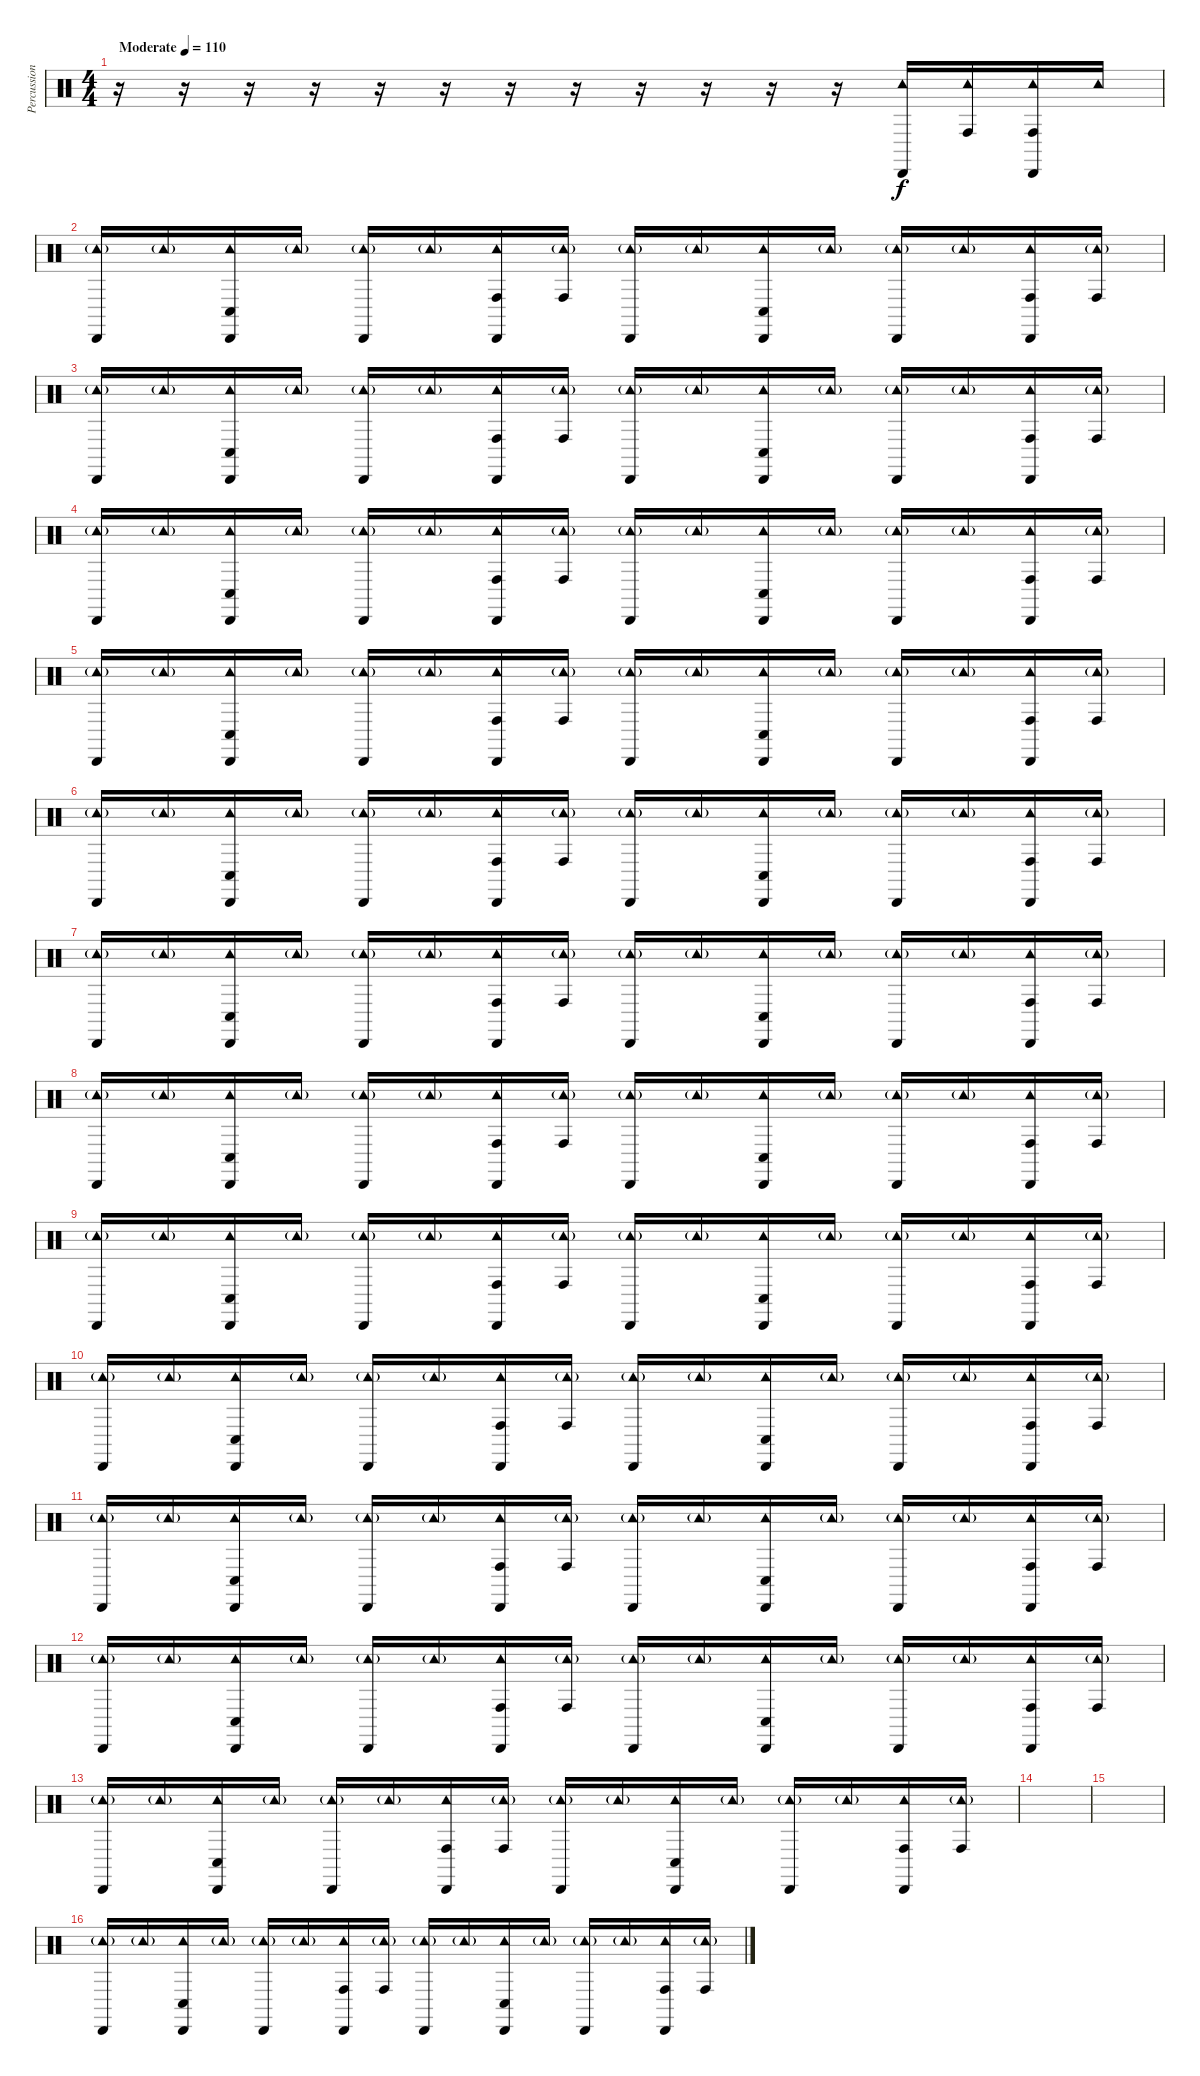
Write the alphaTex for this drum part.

\track ("Percussion" "Percussion") {instrument percussion}
\staff {score}
\articulation defaults
\ts (4 4)
\tempo (110 "Moderate")
\clef neutral
\ks c
r.16{dy f} r.16 r.16 r.16 r.16 r.16 r.16 r.16 r.16 r.16 r.16 r.16 ("Tambourine (hit)" "Cabasa (hit)").16 ("Tambourine (hit)" "Conga high (hit)").16 ("Tambourine (hit)" "Cabasa (hit)" "Conga high (hit)").16 "Tambourine (hit)".16 |
("Tambourine (hit)"{g} "Cabasa (hit)").16 "Tambourine (hit)"{g}.16 ("Tambourine (hit)" "Cabasa (hit)" "Conga low (hit)").16 "Tambourine (hit)"{g}.16 ("Tambourine (hit)"{g} "Cabasa (hit)").16 "Tambourine (hit)"{g}.16 ("Tambourine (hit)" "Cabasa (hit)" "Conga high (hit)").16 ("Tambourine (hit)"{g} "Conga high (hit)").16 ("Tambourine (hit)"{g} "Cabasa (hit)").16 "Tambourine (hit)"{g}.16 ("Tambourine (hit)" "Cabasa (hit)" "Conga low (hit)").16 "Tambourine (hit)"{g}.16 ("Tambourine (hit)"{g} "Cabasa (hit)").16 "Tambourine (hit)"{g}.16 ("Tambourine (hit)" "Cabasa (hit)" "Conga high (hit)").16 ("Tambourine (hit)"{g} "Conga high (hit)").16 |
("Tambourine (hit)"{g} "Cabasa (hit)").16 "Tambourine (hit)"{g}.16 ("Tambourine (hit)" "Cabasa (hit)" "Conga low (hit)").16 "Tambourine (hit)"{g}.16 ("Tambourine (hit)"{g} "Cabasa (hit)").16 "Tambourine (hit)"{g}.16 ("Tambourine (hit)" "Cabasa (hit)" "Conga high (hit)").16 ("Tambourine (hit)"{g} "Conga high (hit)").16 ("Tambourine (hit)"{g} "Cabasa (hit)").16 "Tambourine (hit)"{g}.16 ("Tambourine (hit)" "Cabasa (hit)" "Conga low (hit)").16 "Tambourine (hit)"{g}.16 ("Tambourine (hit)"{g} "Cabasa (hit)").16 "Tambourine (hit)"{g}.16 ("Tambourine (hit)" "Cabasa (hit)" "Conga high (hit)").16 ("Tambourine (hit)"{g} "Conga high (hit)").16 |
("Tambourine (hit)"{g} "Cabasa (hit)").16 "Tambourine (hit)"{g}.16 ("Tambourine (hit)" "Cabasa (hit)" "Conga low (hit)").16 "Tambourine (hit)"{g}.16 ("Tambourine (hit)"{g} "Cabasa (hit)").16 "Tambourine (hit)"{g}.16 ("Tambourine (hit)" "Cabasa (hit)" "Conga high (hit)").16 ("Tambourine (hit)"{g} "Conga high (hit)").16 ("Tambourine (hit)"{g} "Cabasa (hit)").16 "Tambourine (hit)"{g}.16 ("Tambourine (hit)" "Cabasa (hit)" "Conga low (hit)").16 "Tambourine (hit)"{g}.16 ("Tambourine (hit)"{g} "Cabasa (hit)").16 "Tambourine (hit)"{g}.16 ("Tambourine (hit)" "Cabasa (hit)" "Conga high (hit)").16 ("Tambourine (hit)"{g} "Conga high (hit)").16 |
("Tambourine (hit)"{g} "Cabasa (hit)").16 "Tambourine (hit)"{g}.16 ("Tambourine (hit)" "Cabasa (hit)" "Conga low (hit)").16 "Tambourine (hit)"{g}.16 ("Tambourine (hit)"{g} "Cabasa (hit)").16 "Tambourine (hit)"{g}.16 ("Tambourine (hit)" "Cabasa (hit)" "Conga high (hit)").16 ("Tambourine (hit)"{g} "Conga high (hit)").16 ("Tambourine (hit)"{g} "Cabasa (hit)").16 "Tambourine (hit)"{g}.16 ("Tambourine (hit)" "Cabasa (hit)" "Conga low (hit)").16 "Tambourine (hit)"{g}.16 ("Tambourine (hit)"{g} "Cabasa (hit)").16 "Tambourine (hit)"{g}.16 ("Tambourine (hit)" "Cabasa (hit)" "Conga high (hit)").16 ("Tambourine (hit)"{g} "Conga high (hit)").16 |
("Tambourine (hit)"{g} "Cabasa (hit)").16 "Tambourine (hit)"{g}.16 ("Tambourine (hit)" "Cabasa (hit)" "Conga low (hit)").16 "Tambourine (hit)"{g}.16 ("Tambourine (hit)"{g} "Cabasa (hit)").16 "Tambourine (hit)"{g}.16 ("Tambourine (hit)" "Cabasa (hit)" "Conga high (hit)").16 ("Tambourine (hit)"{g} "Conga high (hit)").16 ("Tambourine (hit)"{g} "Cabasa (hit)").16 "Tambourine (hit)"{g}.16 ("Tambourine (hit)" "Cabasa (hit)" "Conga low (hit)").16 "Tambourine (hit)"{g}.16 ("Tambourine (hit)"{g} "Cabasa (hit)").16 "Tambourine (hit)"{g}.16 ("Tambourine (hit)" "Cabasa (hit)" "Conga high (hit)").16 ("Tambourine (hit)"{g} "Conga high (hit)").16 |
("Tambourine (hit)"{g} "Cabasa (hit)").16 "Tambourine (hit)"{g}.16 ("Tambourine (hit)" "Cabasa (hit)" "Conga low (hit)").16 "Tambourine (hit)"{g}.16 ("Tambourine (hit)"{g} "Cabasa (hit)").16 "Tambourine (hit)"{g}.16 ("Tambourine (hit)" "Cabasa (hit)" "Conga high (hit)").16 ("Tambourine (hit)"{g} "Conga high (hit)").16 ("Tambourine (hit)"{g} "Cabasa (hit)").16 "Tambourine (hit)"{g}.16 ("Tambourine (hit)" "Cabasa (hit)" "Conga low (hit)").16 "Tambourine (hit)"{g}.16 ("Tambourine (hit)"{g} "Cabasa (hit)").16 "Tambourine (hit)"{g}.16 ("Tambourine (hit)" "Cabasa (hit)" "Conga high (hit)").16 ("Tambourine (hit)"{g} "Conga high (hit)").16 |
("Tambourine (hit)"{g} "Cabasa (hit)").16 "Tambourine (hit)"{g}.16 ("Tambourine (hit)" "Cabasa (hit)" "Conga low (hit)").16 "Tambourine (hit)"{g}.16 ("Tambourine (hit)"{g} "Cabasa (hit)").16 "Tambourine (hit)"{g}.16 ("Tambourine (hit)" "Cabasa (hit)" "Conga high (hit)").16 ("Tambourine (hit)"{g} "Conga high (hit)").16 ("Tambourine (hit)"{g} "Cabasa (hit)").16 "Tambourine (hit)"{g}.16 ("Tambourine (hit)" "Cabasa (hit)" "Conga low (hit)").16 "Tambourine (hit)"{g}.16 ("Tambourine (hit)"{g} "Cabasa (hit)").16 "Tambourine (hit)"{g}.16 ("Tambourine (hit)" "Cabasa (hit)" "Conga high (hit)").16 ("Tambourine (hit)"{g} "Conga high (hit)").16 |
("Tambourine (hit)"{g} "Cabasa (hit)").16 "Tambourine (hit)"{g}.16 ("Tambourine (hit)" "Cabasa (hit)" "Conga low (hit)").16 "Tambourine (hit)"{g}.16 ("Tambourine (hit)"{g} "Cabasa (hit)").16 "Tambourine (hit)"{g}.16 ("Tambourine (hit)" "Cabasa (hit)" "Conga high (hit)").16 ("Tambourine (hit)"{g} "Conga high (hit)").16 ("Tambourine (hit)"{g} "Cabasa (hit)").16 "Tambourine (hit)"{g}.16 ("Tambourine (hit)" "Cabasa (hit)" "Conga low (hit)").16 "Tambourine (hit)"{g}.16 ("Tambourine (hit)"{g} "Cabasa (hit)").16 "Tambourine (hit)"{g}.16 ("Tambourine (hit)" "Cabasa (hit)" "Conga high (hit)").16 ("Tambourine (hit)"{g} "Conga high (hit)").16 |
("Tambourine (hit)"{g} "Cabasa (hit)").16 "Tambourine (hit)"{g}.16 ("Tambourine (hit)" "Cabasa (hit)" "Conga low (hit)").16 "Tambourine (hit)"{g}.16 ("Tambourine (hit)"{g} "Cabasa (hit)").16 "Tambourine (hit)"{g}.16 ("Tambourine (hit)" "Cabasa (hit)" "Conga high (hit)").16 ("Tambourine (hit)"{g} "Conga high (hit)").16 ("Tambourine (hit)"{g} "Cabasa (hit)").16 "Tambourine (hit)"{g}.16 ("Tambourine (hit)" "Cabasa (hit)" "Conga low (hit)").16 "Tambourine (hit)"{g}.16 ("Tambourine (hit)"{g} "Cabasa (hit)").16 "Tambourine (hit)"{g}.16 ("Tambourine (hit)" "Cabasa (hit)" "Conga high (hit)").16 ("Tambourine (hit)"{g} "Conga high (hit)").16 |
("Tambourine (hit)"{g} "Cabasa (hit)").16 "Tambourine (hit)"{g}.16 ("Tambourine (hit)" "Cabasa (hit)" "Conga low (hit)").16 "Tambourine (hit)"{g}.16 ("Tambourine (hit)"{g} "Cabasa (hit)").16 "Tambourine (hit)"{g}.16 ("Tambourine (hit)" "Cabasa (hit)" "Conga high (hit)").16 ("Tambourine (hit)"{g} "Conga high (hit)").16 ("Tambourine (hit)"{g} "Cabasa (hit)").16 "Tambourine (hit)"{g}.16 ("Tambourine (hit)" "Cabasa (hit)" "Conga low (hit)").16 "Tambourine (hit)"{g}.16 ("Tambourine (hit)"{g} "Cabasa (hit)").16 "Tambourine (hit)"{g}.16 ("Tambourine (hit)" "Cabasa (hit)" "Conga high (hit)").16 ("Tambourine (hit)"{g} "Conga high (hit)").16 |
("Tambourine (hit)"{g} "Cabasa (hit)").16 "Tambourine (hit)"{g}.16 ("Tambourine (hit)" "Cabasa (hit)" "Conga low (hit)").16 "Tambourine (hit)"{g}.16 ("Tambourine (hit)"{g} "Cabasa (hit)").16 "Tambourine (hit)"{g}.16 ("Tambourine (hit)" "Cabasa (hit)" "Conga high (hit)").16 ("Tambourine (hit)"{g} "Conga high (hit)").16 ("Tambourine (hit)"{g} "Cabasa (hit)").16 "Tambourine (hit)"{g}.16 ("Tambourine (hit)" "Cabasa (hit)" "Conga low (hit)").16 "Tambourine (hit)"{g}.16 ("Tambourine (hit)"{g} "Cabasa (hit)").16 "Tambourine (hit)"{g}.16 ("Tambourine (hit)" "Cabasa (hit)" "Conga high (hit)").16 ("Tambourine (hit)"{g} "Conga high (hit)").16 |
("Tambourine (hit)"{g} "Cabasa (hit)").16 "Tambourine (hit)"{g}.16 ("Tambourine (hit)" "Cabasa (hit)" "Conga low (hit)").16 "Tambourine (hit)"{g}.16 ("Tambourine (hit)"{g} "Cabasa (hit)").16 "Tambourine (hit)"{g}.16 ("Tambourine (hit)" "Cabasa (hit)" "Conga high (hit)").16 ("Tambourine (hit)"{g} "Conga high (hit)").16 ("Tambourine (hit)"{g} "Cabasa (hit)").16 "Tambourine (hit)"{g}.16 ("Tambourine (hit)" "Cabasa (hit)" "Conga low (hit)").16 "Tambourine (hit)"{g}.16 ("Tambourine (hit)"{g} "Cabasa (hit)").16 "Tambourine (hit)"{g}.16 ("Tambourine (hit)" "Cabasa (hit)" "Conga high (hit)").16 ("Tambourine (hit)"{g} "Conga high (hit)").16 |
|
|
("Tambourine (hit)"{g} "Cabasa (hit)").16 "Tambourine (hit)"{g}.16 ("Tambourine (hit)" "Cabasa (hit)" "Conga low (hit)").16 "Tambourine (hit)"{g}.16 ("Tambourine (hit)"{g} "Cabasa (hit)").16 "Tambourine (hit)"{g}.16 ("Tambourine (hit)" "Cabasa (hit)" "Conga high (hit)").16 ("Tambourine (hit)"{g} "Conga high (hit)").16 ("Tambourine (hit)"{g} "Cabasa (hit)").16 "Tambourine (hit)"{g}.16 ("Tambourine (hit)" "Cabasa (hit)" "Conga low (hit)").16 "Tambourine (hit)"{g}.16 ("Tambourine (hit)"{g} "Cabasa (hit)").16 "Tambourine (hit)"{g}.16 ("Tambourine (hit)" "Cabasa (hit)" "Conga high (hit)").16 ("Tambourine (hit)"{g} "Conga high (hit)").16
